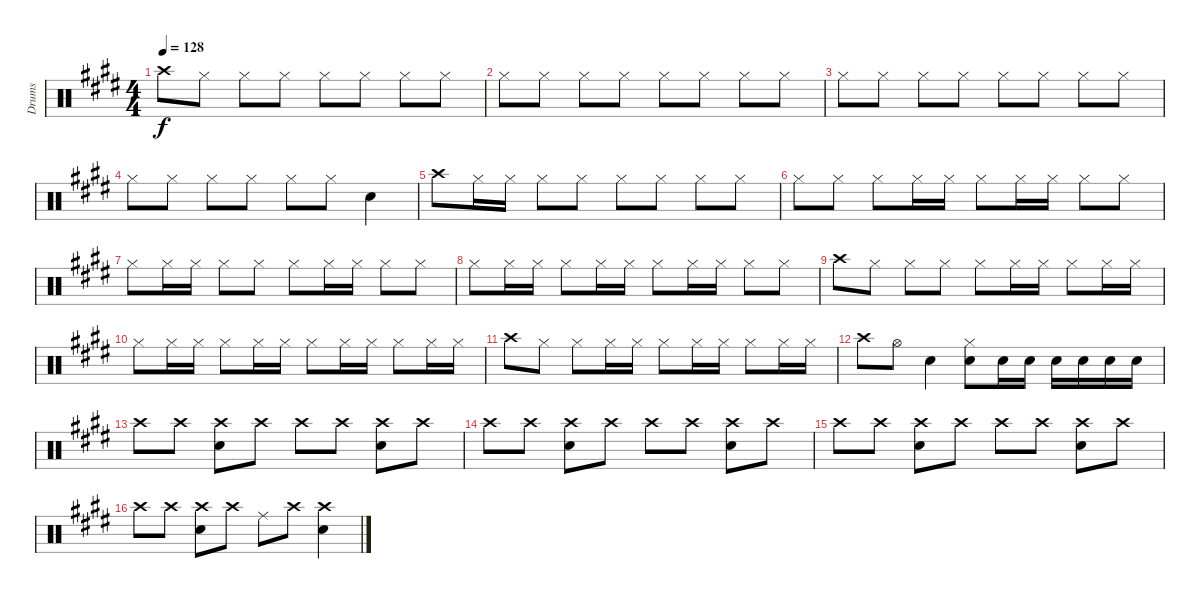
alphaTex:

\track ("Drums" "Drums") {instrument percussion}
\staff {score}
\articulation defaults
\ts (4 4)
\tempo 128
\clef neutral
\ks e "Crash high (hit)".8{dy f} "Hi-Hat (closed)".8 "Hi-Hat (closed)".8 "Hi-Hat (closed)".8 "Hi-Hat (closed)".8 "Hi-Hat (closed)".8 "Hi-Hat (closed)".8 "Hi-Hat (closed)".8
|
"Hi-Hat (closed)".8 "Hi-Hat (closed)".8 "Hi-Hat (closed)".8 "Hi-Hat (closed)".8 "Hi-Hat (closed)".8 "Hi-Hat (closed)".8 "Hi-Hat (closed)".8 "Hi-Hat (closed)".8 |
"Hi-Hat (closed)".8 "Hi-Hat (closed)".8 "Hi-Hat (closed)".8 "Hi-Hat (closed)".8 "Hi-Hat (closed)".8 "Hi-Hat (closed)".8 "Hi-Hat (closed)".8 "Hi-Hat (closed)".8 |
"Hi-Hat (closed)".8 "Hi-Hat (closed)".8 "Hi-Hat (closed)".8 "Hi-Hat (closed)".8 "Hi-Hat (closed)".8 "Hi-Hat (closed)".8 "Snare (hit) 2".4 |
"Crash high (hit)".8 "Hi-Hat (closed)".16 "Hi-Hat (closed)".16 "Hi-Hat (closed)".8 "Hi-Hat (closed)".8 "Hi-Hat (closed)".8 "Hi-Hat (closed)".8 "Hi-Hat (closed)".8 "Hi-Hat (closed)".8 |
"Hi-Hat (closed)".8 "Hi-Hat (closed)".8 "Hi-Hat (closed)".8 "Hi-Hat (closed)".16 "Hi-Hat (closed)".16 "Hi-Hat (closed)".8 "Hi-Hat (closed)".16 "Hi-Hat (closed)".16 "Hi-Hat (closed)".8 "Hi-Hat (closed)".8 |
"Hi-Hat (closed)".8 "Hi-Hat (closed)".16 "Hi-Hat (closed)".16 "Hi-Hat (closed)".8 "Hi-Hat (closed)".8 "Hi-Hat (closed)".8 "Hi-Hat (closed)".16 "Hi-Hat (closed)".16 "Hi-Hat (closed)".8 "Hi-Hat (closed)".8 |
"Hi-Hat (closed)".8 "Hi-Hat (closed)".16 "Hi-Hat (closed)".16 "Hi-Hat (closed)".8 "Hi-Hat (closed)".16 "Hi-Hat (closed)".16 "Hi-Hat (closed)".8 "Hi-Hat (closed)".16 "Hi-Hat (closed)".16 "Hi-Hat (closed)".8 "Hi-Hat (closed)".8 |
"Crash high (hit)".8 "Hi-Hat (closed)".8 "Hi-Hat (closed)".8 "Hi-Hat (closed)".8 "Hi-Hat (closed)".8 "Hi-Hat (closed)".16 "Hi-Hat (closed)".16 "Hi-Hat (closed)".8 "Hi-Hat (closed)".16 "Hi-Hat (closed)".16 |
"Hi-Hat (closed)".8 "Hi-Hat (closed)".16 "Hi-Hat (closed)".16 "Hi-Hat (closed)".8 "Hi-Hat (closed)".16 "Hi-Hat (closed)".16 "Hi-Hat (closed)".8 "Hi-Hat (closed)".16 "Hi-Hat (closed)".16 "Hi-Hat (closed)".8 "Hi-Hat (closed)".16 "Hi-Hat (closed)".16 |
"Crash high (hit)".8 "Hi-Hat (closed)".8 "Hi-Hat (closed)".8 "Hi-Hat (closed)".16 "Hi-Hat (closed)".16 "Hi-Hat (closed)".8 "Hi-Hat (closed)".16 "Hi-Hat (closed)".16 "Hi-Hat (closed)".8 "Hi-Hat (closed)".16 "Hi-Hat (closed)".16 |
"Crash high (hit)".8 "Hi-Hat (open)".8 "Snare (hit) 2".4 ("Hi-Hat (closed)" "Snare (hit) 2").8 "Snare (hit) 2".16 "Snare (hit) 2".16 "Snare (hit) 2".16 "Snare (hit) 2".16 "Snare (hit) 2".16 "Snare (hit) 2".16 |
"Crash high (hit)".8 "Crash high (hit)".8 ("Crash high (hit)" "Snare (hit) 2").8 "Crash high (hit)".8 "Crash high (hit)".8 "Crash high (hit)".8 ("Crash high (hit)" "Snare (hit) 2").8 "Crash high (hit)".8 |
"Crash high (hit)".8 "Crash high (hit)".8 ("Crash high (hit)" "Snare (hit) 2").8 "Crash high (hit)".8 "Crash high (hit)".8 "Crash high (hit)".8 ("Crash high (hit)" "Snare (hit) 2").8 "Crash high (hit)".8 |
"Crash high (hit)".8 "Crash high (hit)".8 ("Crash high (hit)" "Snare (hit) 2").8 "Crash high (hit)".8 "Crash high (hit)".8 "Crash high (hit)".8 ("Crash high (hit)" "Snare (hit) 2").8 "Crash high (hit)".8 |
"Crash high (hit)".8 "Crash high (hit)".8 ("Crash high (hit)" "Snare (hit) 2").8 "Crash high (hit)".8 "Ride (middle)".8 "Crash high (hit)".8 ("Crash high (hit)" "Snare (hit) 2").4
